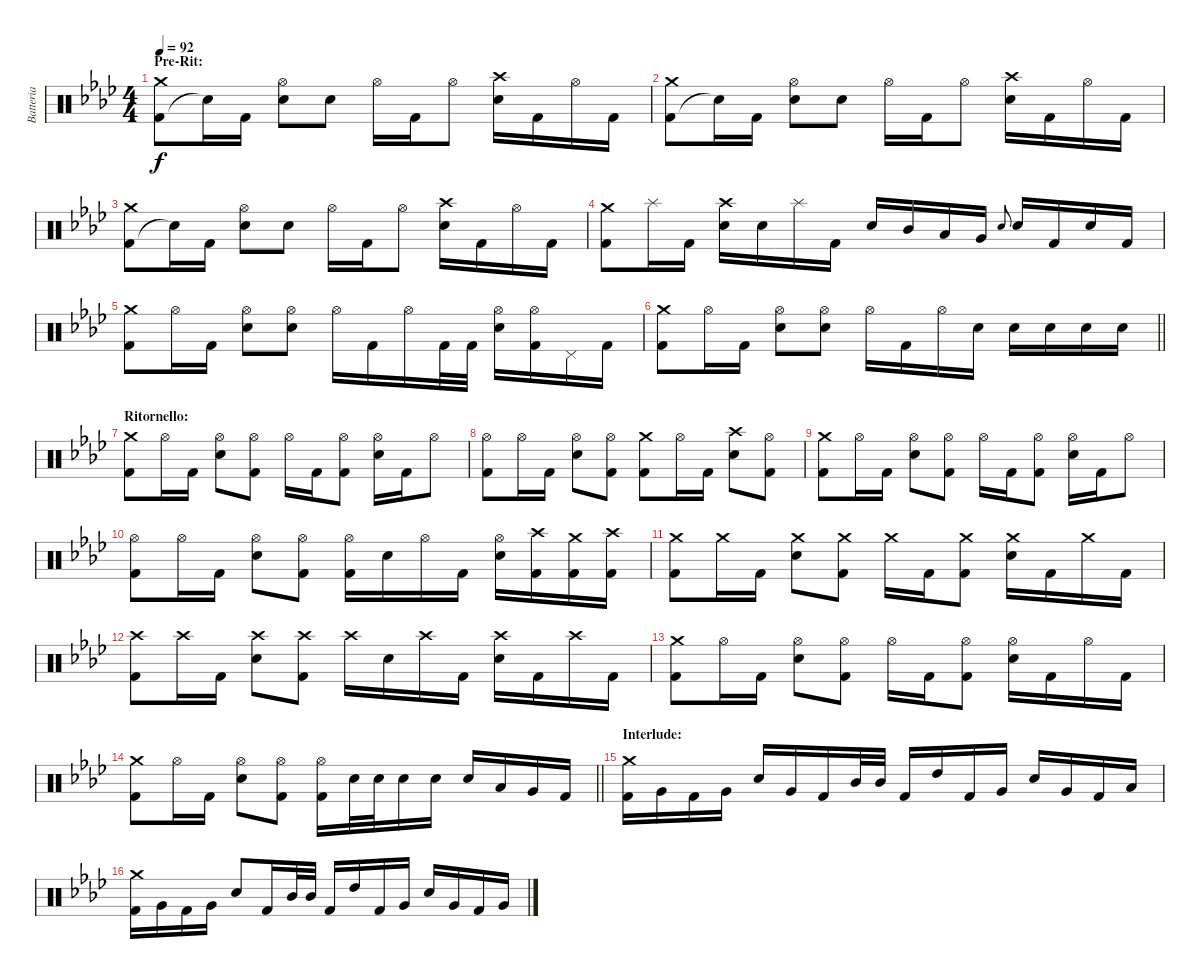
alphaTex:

\track ("Batteria" "Batteria") {instrument percussion}
\staff {score}
\articulation defaults
\ts (4 4)
\section ("" "Pre-Rit:")
\tempo 92
\clef neutral
\ks fminor
("Kick (hit) 2" "Crash medium (hit)").8{dy f} "Snare (hit)"{t}.16 "Kick (hit) 2".16 ("Snare (hit) 2" "Hi-Hat (open)").8 "Snare (hit) 2".8 "Hi-Hat (open)".16 "Kick (hit) 2".16 "Hi-Hat (open)".8 ("Snare (hit) 2" "Crash high (hit)").16 "Kick (hit) 2".16 "Hi-Hat (open)".16 "Kick (hit) 2".16 |
("Kick (hit) 2" "Crash medium (hit)").8 "Snare (hit)"{t}.16 "Kick (hit) 2".16 ("Snare (hit) 2" "Hi-Hat (open)").8 "Snare (hit) 2".8 "Hi-Hat (open)".16 "Kick (hit) 2".16 "Hi-Hat (open)".8 ("Snare (hit) 2" "Crash high (hit)").16 "Kick (hit) 2".16 "Hi-Hat (open)".16 "Kick (hit) 2".16 |
("Kick (hit) 2" "Crash medium (hit)").8 "Snare (hit)"{t}.16 "Kick (hit) 2".16 ("Snare (hit) 2" "Hi-Hat (open)").8 "Snare (hit) 2".8 "Hi-Hat (open)".16 "Kick (hit) 2".16 "Hi-Hat (open)".8 ("Snare (hit) 2" "Crash high (hit)").16 "Kick (hit) 2".16 "Hi-Hat (open)".16 "Kick (hit) 2".16 |
("Kick (hit) 2" "Crash medium (hit)").8 "Splash (hit)".16 "Kick (hit) 2".16 ("Snare (hit) 2" "Crash high (hit)").16 "Snare (hit) 2".16 "Splash (hit)".16 "Kick (hit) 2".16 "Snare (hit) 2".16 "Mid Tom (hit)".16 "Low Tom (hit)".16 "Very Low Tom (hit)".16 "Snare (hit) 2".8{gr onbeat} "Snare (hit) 2".16 "Kick (hit) 2".16 "Snare (hit) 2".16 "Kick (hit) 2".16 |
("Kick (hit) 2" "Crash medium (hit)").8 "Hi-Hat (open)".16 "Kick (hit) 2".16 ("Snare (hit) 2" "Hi-Hat (open)").8 ("Snare (hit) 2" "Hi-Hat (open)").8 "Hi-Hat (open)".16 "Kick (hit) 2".16 "Hi-Hat (open)".16 "Kick (hit) 2".32 "Kick (hit) 2".32 ("Snare (hit) 2" "Hi-Hat (open)").16 ("Kick (hit) 2" "Hi-Hat (open)").16 "Pedal Hi-Hat (hit)".16 "Kick (hit) 2".16 |
\barLineRight lightlight
("Kick (hit) 2" "Crash medium (hit)").8 "Hi-Hat (open)".16 "Kick (hit) 2".16 ("Snare (hit) 2" "Hi-Hat (open)").8 ("Snare (hit) 2" "Hi-Hat (open)").8 "Hi-Hat (open)".16 "Kick (hit) 2".16 "Hi-Hat (open)".16 "Snare (hit) 2".16 "Snare (hit) 2".16 "Snare (hit) 2".16 "Snare (hit) 2".16 "Snare (hit) 2".16 |
\section ("" "Ritornello:")
("Kick (hit) 2" "Crash medium (hit)").8 "Hi-Hat (open)".16 "Kick (hit) 2".16 ("Snare (hit) 2" "Hi-Hat (open)").8 ("Kick (hit) 2" "Hi-Hat (open)").8 "Hi-Hat (open)".16 "Kick (hit) 2".16 ("Kick (hit) 2" "Hi-Hat (open)").8 ("Snare (hit) 2" "Hi-Hat (open)").16 "Kick (hit) 2".16 "Hi-Hat (open)".8 |
("Kick (hit) 2" "Hi-Hat (open)").8 "Hi-Hat (open)".16 "Kick (hit) 2".16 ("Snare (hit) 2" "Hi-Hat (open)").8 ("Kick (hit) 2" "Hi-Hat (open)").8 ("Kick (hit) 2" "Crash medium (hit)").8 "Hi-Hat (open)".16 "Kick (hit) 2".16 ("Snare (hit) 2" "Crash high (hit)").8 ("Kick (hit) 2" "Hi-Hat (open)").8 |
("Kick (hit) 2" "Crash medium (hit)").8 "Hi-Hat (open)".16 "Kick (hit) 2".16 ("Snare (hit) 2" "Hi-Hat (open)").8 ("Kick (hit) 2" "Hi-Hat (open)").8 "Hi-Hat (open)".16 "Kick (hit) 2".16 ("Kick (hit) 2" "Hi-Hat (open)").8 ("Snare (hit) 2" "Hi-Hat (open)").16 "Kick (hit) 2".16 "Hi-Hat (open)".8 |
("Kick (hit) 2" "Hi-Hat (open)").8 "Hi-Hat (open)".16 "Kick (hit) 2".16 ("Snare (hit) 2" "Hi-Hat (open)").8 ("Kick (hit) 2" "Hi-Hat (open)").8 ("Kick (hit) 2" "Hi-Hat (open)").16 "Snare (hit) 2".16 "Hi-Hat (open)".16 "Kick (hit) 2".16 ("Snare (hit) 2" "Hi-Hat (open)").16 ("Kick (hit) 2" "Crash high (hit)").16 ("Kick (hit) 2" "Crash medium (hit)").16 ("Kick (hit) 2" "Crash high (hit)").16 |
("Kick (hit) 2" "Crash medium (hit)").8 "Crash medium (hit)".16 "Kick (hit) 2".16 ("Snare (hit) 2" "Crash medium (hit)").8 ("Kick (hit) 2" "Crash medium (hit)").8 "Crash medium (hit)".16 "Kick (hit) 2".16 ("Kick (hit) 2" "Crash medium (hit)").8 ("Snare (hit) 2" "Crash medium (hit)").16 "Kick (hit) 2".16 "Crash medium (hit)".16 "Kick (hit) 2".16 |
("Kick (hit) 2" "Crash high (hit)").8 "Crash high (hit)".16 "Kick (hit) 2".16 ("Snare (hit) 2" "Crash high (hit)").8 ("Kick (hit) 2" "Crash high (hit)").8 "Crash high (hit)".16 "Snare (hit) 2".16 "Crash high (hit)".16 "Kick (hit) 2".16 ("Snare (hit) 2" "Crash high (hit)").16 "Kick (hit) 2".16 "Crash high (hit)".16 "Kick (hit) 2".16 |
("Kick (hit) 2" "Crash medium (hit)").8 "Hi-Hat (open)".16 "Kick (hit) 2".16 ("Snare (hit) 2" "Hi-Hat (open)").8 ("Kick (hit) 2" "Hi-Hat (open)").8 "Hi-Hat (open)".16 "Kick (hit) 2".16 ("Kick (hit) 2" "Hi-Hat (open)").8 ("Snare (hit) 2" "Hi-Hat (open)").16 "Kick (hit) 2".16 "Hi-Hat (open)".16 "Kick (hit) 2".16 |
\barLineRight lightlight
("Kick (hit) 2" "Crash medium (hit)").8 "Hi-Hat (open)".16 "Kick (hit) 2".16 ("Snare (hit) 2" "Hi-Hat (open)").8 ("Kick (hit) 2" "Hi-Hat (open)").8 ("Kick (hit) 2" "Hi-Hat (open)").16 "Snare (hit) 2".32 "Snare (hit) 2".32 "Snare (hit) 2".16 "Snare (hit) 2".16 "Snare (hit) 2".16 "Low Tom (hit)".16 "Very Low Tom (hit)".16 "Kick (hit) 2".16 |
\section ("" "Interlude:")
("Kick (hit) 2" "Crash medium (hit)").16 "Very Low Tom (hit)".16 "Kick (hit) 2".16 "Very Low Tom (hit)".16 "Snare (hit) 2".16 "Very Low Tom (hit)".16 "Kick (hit) 2".16 "Mid Tom (hit)".32 "Mid Tom (hit)".32 "Kick (hit) 2".16 "High Tom (hit)".16 "Kick (hit) 2".16 "Very Low Tom (hit)".16 "Snare (hit) 2".16 "Very Low Tom (hit)".16 "Kick (hit) 2".16 "Low Tom (hit)".16 |
("Kick (hit) 2" "Crash medium (hit)").16 "Very Low Tom (hit)".16 "Kick (hit) 2".16 "Very Low Tom (hit)".16 "Snare (hit) 2".8 "Kick (hit) 2".16 "Mid Tom (hit)".32 "Mid Tom (hit)".32 "Kick (hit) 2".16 "High Tom (hit)".16 "Kick (hit) 2".16 "Very Low Tom (hit)".16 "Snare (hit) 2".16 "Very Low Tom (hit)".16 "Kick (hit) 2".16 "Very Low Tom (hit)".16
